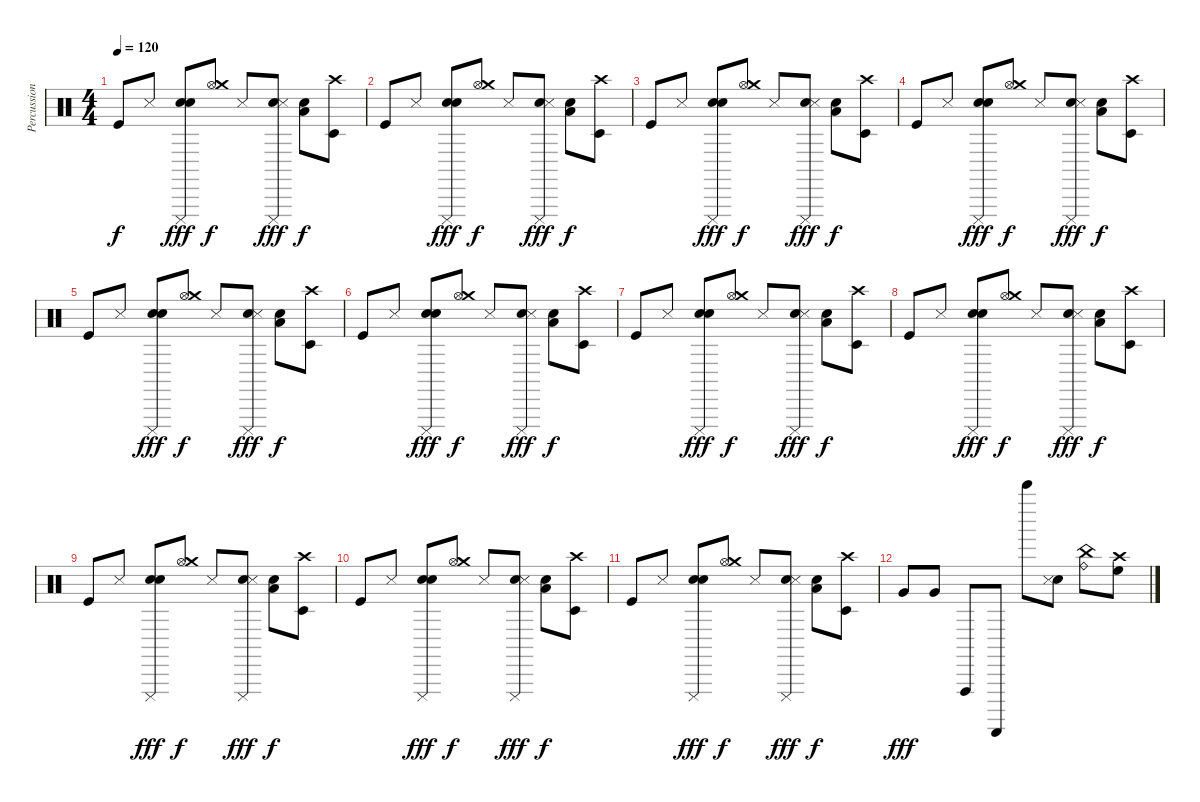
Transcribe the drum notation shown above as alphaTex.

\track ("Percussion" "Percussion") {instrument percussion}
\staff {score}
\articulation defaults
\ts (4 4)
\tempo 120
\clef neutral
\ks c "Kick (hit)".8{dy f} "Snare (side stick) 3".8
("Hand Clap (hit)" "Electric Snare (hit)" "Cuica (mute)").8{dy fff} ("Hi-Hat (open)" "Crash medium (hit)").8{dy f} "Metronome (hit)".8 ("Metronome (bell)" "Metronome (hit)" "Cuica (mute)").8{dy fff} ("Low Floor Tom (hit)" "Electric Snare (hit)").8{dy f} ("Crash high (hit)" "Timbale low (hit)").8 |
"Kick (hit)".8 "Snare (side stick) 3".8 ("Hand Clap (hit)" "Electric Snare (hit)" "Cuica (mute)").8{dy fff} ("Hi-Hat (open)" "Crash medium (hit)").8{dy f} "Metronome (hit)".8 ("Metronome (bell)" "Metronome (hit)" "Cuica (mute)").8{dy fff} ("Low Floor Tom (hit)" "Electric Snare (hit)").8{dy f} ("Crash high (hit)" "Timbale low (hit)").8 |
"Kick (hit)".8 "Snare (side stick) 3".8 ("Hand Clap (hit)" "Electric Snare (hit)" "Cuica (mute)").8{dy fff} ("Hi-Hat (open)" "Crash medium (hit)").8{dy f} "Metronome (hit)".8 ("Metronome (bell)" "Metronome (hit)" "Cuica (mute)").8{dy fff} ("Low Floor Tom (hit)" "Electric Snare (hit)").8{dy f} ("Crash high (hit)" "Timbale low (hit)").8 |
"Kick (hit)".8 "Snare (side stick) 3".8 ("Hand Clap (hit)" "Electric Snare (hit)" "Cuica (mute)").8{dy fff} ("Hi-Hat (open)" "Crash medium (hit)").8{dy f} "Metronome (hit)".8 ("Metronome (bell)" "Metronome (hit)" "Cuica (mute)").8{dy fff} ("Low Floor Tom (hit)" "Electric Snare (hit)").8{dy f} ("Crash high (hit)" "Timbale low (hit)").8 |
"Kick (hit)".8 "Snare (side stick) 3".8 ("Hand Clap (hit)" "Electric Snare (hit)" "Cuica (mute)").8{dy fff} ("Hi-Hat (open)" "Crash medium (hit)").8{dy f} "Metronome (hit)".8 ("Metronome (bell)" "Metronome (hit)" "Cuica (mute)").8{dy fff} ("Low Floor Tom (hit)" "Electric Snare (hit)").8{dy f} ("Crash high (hit)" "Timbale low (hit)").8 |
"Kick (hit)".8 "Snare (side stick) 3".8 ("Hand Clap (hit)" "Electric Snare (hit)" "Cuica (mute)").8{dy fff} ("Hi-Hat (open)" "Crash medium (hit)").8{dy f} "Metronome (hit)".8 ("Metronome (bell)" "Metronome (hit)" "Cuica (mute)").8{dy fff} ("Low Floor Tom (hit)" "Electric Snare (hit)").8{dy f} ("Crash high (hit)" "Timbale low (hit)").8 |
"Kick (hit)".8 "Snare (side stick) 3".8 ("Hand Clap (hit)" "Electric Snare (hit)" "Cuica (mute)").8{dy fff} ("Hi-Hat (open)" "Crash medium (hit)").8{dy f} "Metronome (hit)".8 ("Metronome (bell)" "Metronome (hit)" "Cuica (mute)").8{dy fff} ("Low Floor Tom (hit)" "Electric Snare (hit)").8{dy f} ("Crash high (hit)" "Timbale low (hit)").8 |
"Kick (hit)".8 "Snare (side stick) 3".8 ("Hand Clap (hit)" "Electric Snare (hit)" "Cuica (mute)").8{dy fff} ("Hi-Hat (open)" "Crash medium (hit)").8{dy f} "Metronome (hit)".8 ("Metronome (bell)" "Metronome (hit)" "Cuica (mute)").8{dy fff} ("Low Floor Tom (hit)" "Electric Snare (hit)").8{dy f} ("Crash high (hit)" "Timbale low (hit)").8 |
"Kick (hit)".8 "Snare (side stick) 3".8 ("Hand Clap (hit)" "Electric Snare (hit)" "Cuica (mute)").8{dy fff} ("Hi-Hat (open)" "Crash medium (hit)").8{dy f} "Metronome (hit)".8 ("Metronome (bell)" "Metronome (hit)" "Cuica (mute)").8{dy fff} ("Low Floor Tom (hit)" "Electric Snare (hit)").8{dy f} ("Crash high (hit)" "Timbale low (hit)").8 |
"Kick (hit)".8 "Snare (side stick) 3".8 ("Hand Clap (hit)" "Electric Snare (hit)" "Cuica (mute)").8{dy fff} ("Hi-Hat (open)" "Crash medium (hit)").8{dy f} "Metronome (hit)".8 ("Metronome (bell)" "Metronome (hit)" "Cuica (mute)").8{dy fff} ("Low Floor Tom (hit)" "Electric Snare (hit)").8{dy f} ("Crash high (hit)" "Timbale low (hit)").8 |
"Kick (hit)".8 "Snare (side stick) 3".8 ("Hand Clap (hit)" "Electric Snare (hit)" "Cuica (mute)").8{dy fff} ("Hi-Hat (open)" "Crash medium (hit)").8{dy f} "Metronome (hit)".8 ("Metronome (bell)" "Metronome (hit)" "Cuica (mute)").8{dy fff} ("Low Floor Tom (hit)" "Electric Snare (hit)").8{dy f} ("Crash high (hit)" "Timbale low (hit)").8 |
"Very Low Tom (hit)".8{dy fff} "Very Low Tom (hit)".8 "Vibraslap (hit)".8 "Guiro (scrap-return)".8 "Bell Tree (hit)".8 ("Metronome (bell)" "Snare (side stick) 3").8 ("China (hit)" "Ride (bell)").8 ("Crash high (hit)" "High Floor Tom (hit)").8
